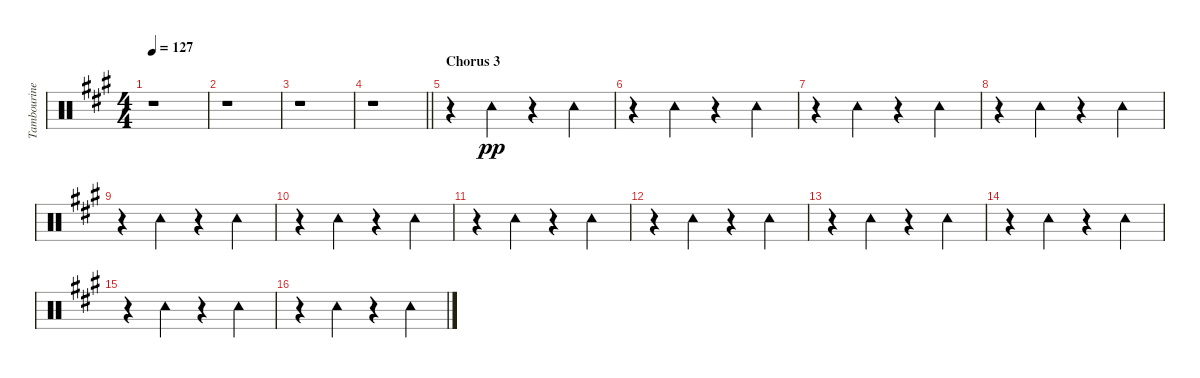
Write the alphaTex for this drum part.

\track ("Tambourine" "Tambourine") {instrument percussion}
\staff {score}
\articulation defaults
\ts (4 4)
\tempo 127
\clef neutral
\ks a
r.1{dy pp} |
r.1 |
r.1 |
\barLineRight lightlight
r.1 |
\section ("" "Chorus 3")
r.4{volume 16} "Tambourine (hit)".4 r.4 "Tambourine (hit)".4 |
r.4 "Tambourine (hit)".4 r.4 "Tambourine (hit)".4 |
r.4 "Tambourine (hit)".4 r.4 "Tambourine (hit)".4 |
r.4 "Tambourine (hit)".4 r.4 "Tambourine (hit)".4 |
r.4 "Tambourine (hit)".4 r.4 "Tambourine (hit)".4 |
r.4 "Tambourine (hit)".4 r.4 "Tambourine (hit)".4 |
r.4 "Tambourine (hit)".4 r.4 "Tambourine (hit)".4 |
r.4 "Tambourine (hit)".4 r.4 "Tambourine (hit)".4 |
r.4 "Tambourine (hit)".4 r.4 "Tambourine (hit)".4 |
r.4 "Tambourine (hit)".4 r.4 "Tambourine (hit)".4 |
r.4 "Tambourine (hit)".4 r.4 "Tambourine (hit)".4 |
r.4 "Tambourine (hit)".4 r.4 "Tambourine (hit)".4
